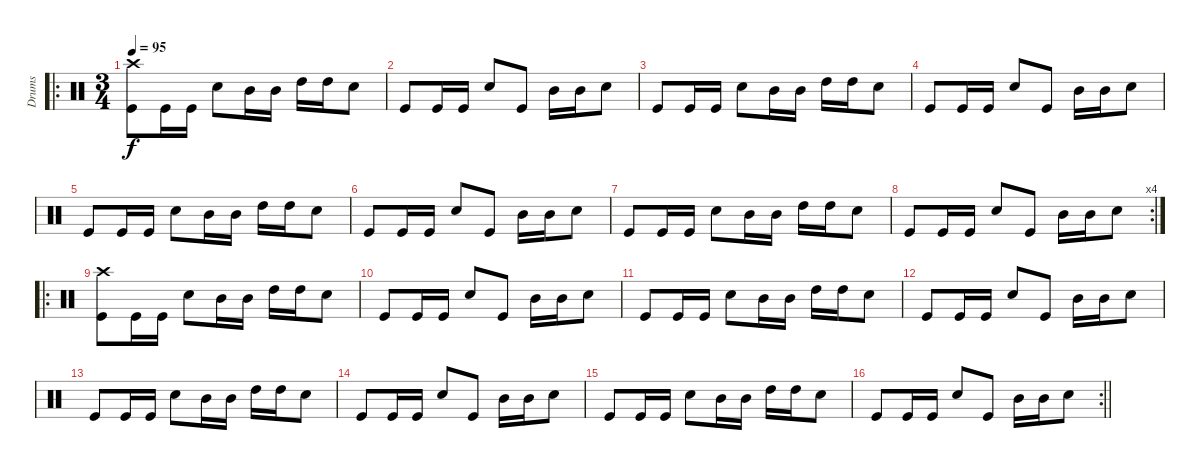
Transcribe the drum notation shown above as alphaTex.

\track ("Drums" "Drums") {instrument percussion}
\staff {score}
\articulation defaults
\ro
\ts (3 4)
\tempo 95
\clef neutral
\ks c
("Crash high (hit)" "Kick (hit)").8{dy f} "Kick (hit)".16 "Kick (hit)".16 "Snare (hit) 2".8 "Mid Tom (hit)".16 "Mid Tom (hit)".16 "High Tom (hit)".16 "High Tom (hit)".16 "Snare (hit) 2".8 |
"Kick (hit)".8 "Kick (hit)".16 "Kick (hit)".16 "Snare (hit) 2".8 "Kick (hit)".8 "Mid Tom (hit)".16 "Mid Tom (hit)".16 "Snare (hit) 2".8 |
"Kick (hit)".8 "Kick (hit)".16 "Kick (hit)".16 "Snare (hit) 2".8 "Mid Tom (hit)".16 "Mid Tom (hit)".16 "High Tom (hit)".16 "High Tom (hit)".16 "Snare (hit) 2".8 |
"Kick (hit)".8 "Kick (hit)".16 "Kick (hit)".16 "Snare (hit) 2".8 "Kick (hit)".8 "Mid Tom (hit)".16 "Mid Tom (hit)".16 "Snare (hit) 2".8 |
"Kick (hit)".8 "Kick (hit)".16 "Kick (hit)".16 "Snare (hit) 2".8 "Mid Tom (hit)".16 "Mid Tom (hit)".16 "High Tom (hit)".16 "High Tom (hit)".16 "Snare (hit) 2".8 |
"Kick (hit)".8 "Kick (hit)".16 "Kick (hit)".16 "Snare (hit) 2".8 "Kick (hit)".8 "Mid Tom (hit)".16 "Mid Tom (hit)".16 "Snare (hit) 2".8 |
"Kick (hit)".8 "Kick (hit)".16 "Kick (hit)".16 "Snare (hit) 2".8 "Mid Tom (hit)".16 "Mid Tom (hit)".16 "High Tom (hit)".16 "High Tom (hit)".16 "Snare (hit) 2".8 |
\rc 4 "Kick (hit)".8 "Kick (hit)".16 "Kick (hit)".16 "Snare (hit) 2".8 "Kick (hit)".8 "Mid Tom (hit)".16 "Mid Tom (hit)".16 "Snare (hit) 2".8
|
\ro
("Crash high (hit)" "Kick (hit)").8 "Kick (hit)".16 "Kick (hit)".16 "Snare (hit) 2".8 "Mid Tom (hit)".16 "Mid Tom (hit)".16 "High Tom (hit)".16 "High Tom (hit)".16 "Snare (hit) 2".8 |
"Kick (hit)".8 "Kick (hit)".16 "Kick (hit)".16 "Snare (hit) 2".8 "Kick (hit)".8 "Mid Tom (hit)".16 "Mid Tom (hit)".16 "Snare (hit) 2".8 |
"Kick (hit)".8 "Kick (hit)".16 "Kick (hit)".16 "Snare (hit) 2".8 "Mid Tom (hit)".16 "Mid Tom (hit)".16 "High Tom (hit)".16 "High Tom (hit)".16 "Snare (hit) 2".8 |
"Kick (hit)".8 "Kick (hit)".16 "Kick (hit)".16 "Snare (hit) 2".8 "Kick (hit)".8 "Mid Tom (hit)".16 "Mid Tom (hit)".16 "Snare (hit) 2".8 |
"Kick (hit)".8 "Kick (hit)".16 "Kick (hit)".16 "Snare (hit) 2".8 "Mid Tom (hit)".16 "Mid Tom (hit)".16 "High Tom (hit)".16 "High Tom (hit)".16 "Snare (hit) 2".8 |
"Kick (hit)".8 "Kick (hit)".16 "Kick (hit)".16 "Snare (hit) 2".8 "Kick (hit)".8 "Mid Tom (hit)".16 "Mid Tom (hit)".16 "Snare (hit) 2".8 |
"Kick (hit)".8 "Kick (hit)".16 "Kick (hit)".16 "Snare (hit) 2".8 "Mid Tom (hit)".16 "Mid Tom (hit)".16 "High Tom (hit)".16 "High Tom (hit)".16 "Snare (hit) 2".8 |
\rc 2
\barLineRight lightlight "Kick (hit)".8 "Kick (hit)".16 "Kick (hit)".16 "Snare (hit) 2".8 "Kick (hit)".8 "Mid Tom (hit)".16 "Mid Tom (hit)".16 "Snare (hit) 2".8
